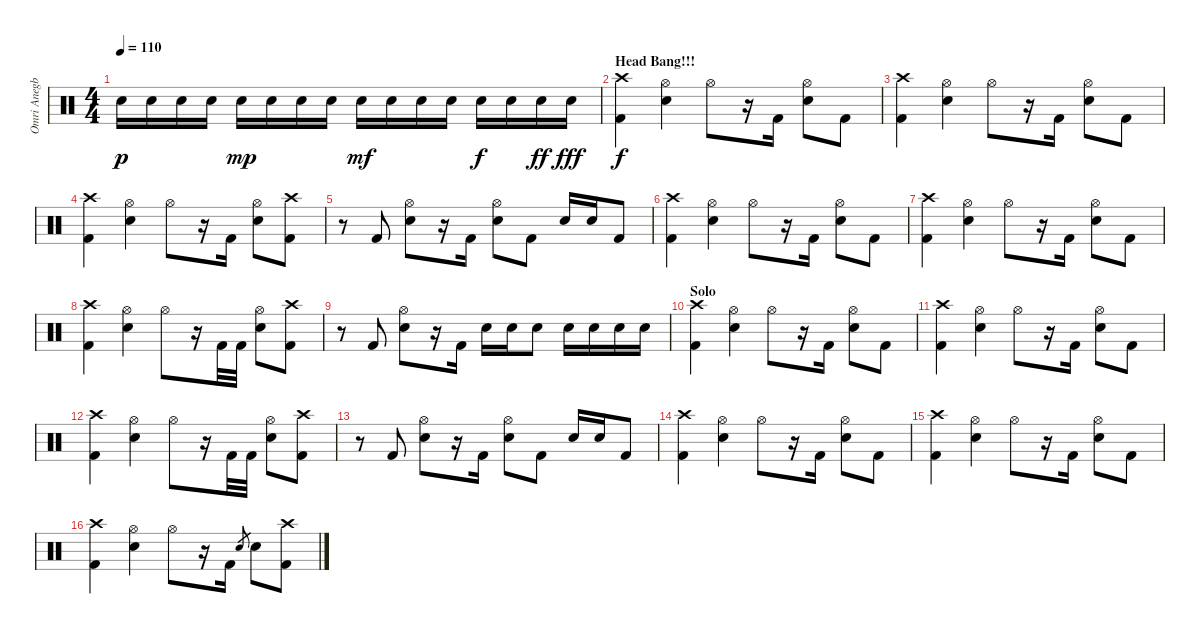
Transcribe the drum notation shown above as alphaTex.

\track ("Omri Anegbi" "Omri Anegb") {instrument percussion}
\staff {score}
\articulation defaults
\ts (4 4)
\tempo 110
\clef neutral
\ks c "Snare (hit) 2".16{dy p} "Snare (hit) 2".16 "Snare (hit) 2".16 "Snare (hit) 2".16 "Snare (hit) 2".16{dy mp} "Snare (hit) 2".16 "Snare (hit) 2".16 "Snare (hit) 2".16 "Snare (hit) 2".16{dy mf} "Snare (hit) 2".16 "Snare (hit) 2".16 "Snare (hit) 2".16 "Snare (hit) 2".16{dy f} "Snare (hit) 2".16 "Snare (hit) 2".16{dy ff} "Snare (hit) 2".16{dy fff}
|
\section ("" "Head Bang!!!")
("Crash high (hit)" "Kick (hit) 2").4{dy f} ("Hi-Hat (open)" "Snare (hit) 2").4 "Hi-Hat (open)".8 r.16 "Kick (hit) 2".16 ("Hi-Hat (open)" "Snare (hit) 2").8 "Kick (hit) 2".8 |
("Crash high (hit)" "Kick (hit) 2").4 ("Hi-Hat (open)" "Snare (hit) 2").4 "Hi-Hat (open)".8 r.16 "Kick (hit) 2".16 ("Hi-Hat (open)" "Snare (hit) 2").8 "Kick (hit) 2".8 |
("Crash high (hit)" "Kick (hit) 2").4 ("Hi-Hat (open)" "Snare (hit) 2").4 "Hi-Hat (open)".8 r.16 "Kick (hit) 2".16 ("Hi-Hat (open)" "Snare (hit) 2").8 ("Crash high (hit)" "Kick (hit) 2").8 |
r.8 "Kick (hit) 2".8 ("Hi-Hat (open)" "Snare (hit) 2").8 r.16 "Kick (hit) 2".16 ("Hi-Hat (open)" "Snare (hit) 2").8 "Kick (hit) 2".8 "Snare (hit) 2".16 "Snare (hit) 2".16 "Kick (hit) 2".8 |
("Crash high (hit)" "Kick (hit) 2").4 ("Hi-Hat (open)" "Snare (hit) 2").4 "Hi-Hat (open)".8 r.16 "Kick (hit) 2".16 ("Hi-Hat (open)" "Snare (hit) 2").8 "Kick (hit) 2".8 |
("Crash high (hit)" "Kick (hit) 2").4 ("Hi-Hat (open)" "Snare (hit) 2").4 "Hi-Hat (open)".8 r.16 "Kick (hit) 2".16 ("Hi-Hat (open)" "Snare (hit) 2").8 "Kick (hit) 2".8 |
("Crash high (hit)" "Kick (hit) 2").4 ("Hi-Hat (open)" "Snare (hit) 2").4 "Hi-Hat (open)".8 r.16 "Kick (hit) 2".32 "Kick (hit) 2".32 ("Hi-Hat (open)" "Snare (hit) 2").8 ("Crash high (hit)" "Kick (hit) 2").8 |
r.8 "Kick (hit) 2".8 ("Hi-Hat (open)" "Snare (hit) 2").8 r.16 "Kick (hit) 2".16 "Snare (hit) 2".16 "Snare (hit) 2".16 "Snare (hit) 2".8 "Snare (hit) 2".16 "Snare (hit) 2".16 "Snare (hit) 2".16 "Snare (hit) 2".16 |
\section ("" "Solo")
("Crash high (hit)" "Kick (hit) 2").4 ("Hi-Hat (open)" "Snare (hit) 2").4 "Hi-Hat (open)".8 r.16 "Kick (hit) 2".16 ("Hi-Hat (open)" "Snare (hit) 2").8 "Kick (hit) 2".8 |
("Crash high (hit)" "Kick (hit) 2").4 ("Hi-Hat (open)" "Snare (hit) 2").4 "Hi-Hat (open)".8 r.16 "Kick (hit) 2".16 ("Hi-Hat (open)" "Snare (hit) 2").8 "Kick (hit) 2".8 |
("Crash high (hit)" "Kick (hit) 2").4 ("Hi-Hat (open)" "Snare (hit) 2").4 "Hi-Hat (open)".8 r.16 "Kick (hit) 2".32 "Kick (hit) 2".32 ("Hi-Hat (open)" "Snare (hit) 2").8 ("Crash high (hit)" "Kick (hit) 2").8 |
r.8 "Kick (hit) 2".8 ("Hi-Hat (open)" "Snare (hit) 2").8 r.16 "Kick (hit) 2".16 ("Hi-Hat (open)" "Snare (hit) 2").8 "Kick (hit) 2".8 "Snare (hit) 2".16 "Snare (hit) 2".16 "Kick (hit) 2".8 |
("Crash high (hit)" "Kick (hit) 2").4 ("Hi-Hat (open)" "Snare (hit) 2").4 "Hi-Hat (open)".8 r.16 "Kick (hit) 2".16 ("Hi-Hat (open)" "Snare (hit) 2").8 "Kick (hit) 2".8 |
("Crash high (hit)" "Kick (hit) 2").4 ("Hi-Hat (open)" "Snare (hit) 2").4 "Hi-Hat (open)".8 r.16 "Kick (hit) 2".16 ("Hi-Hat (open)" "Snare (hit) 2").8 "Kick (hit) 2".8 |
("Crash high (hit)" "Kick (hit) 2").4 ("Hi-Hat (open)" "Snare (hit) 2").4 "Hi-Hat (open)".8 r.16 "Kick (hit) 2".16 "Snare (hit) 2".8{gr} "Snare (hit) 2".8 ("Crash high (hit)" "Kick (hit) 2").8
